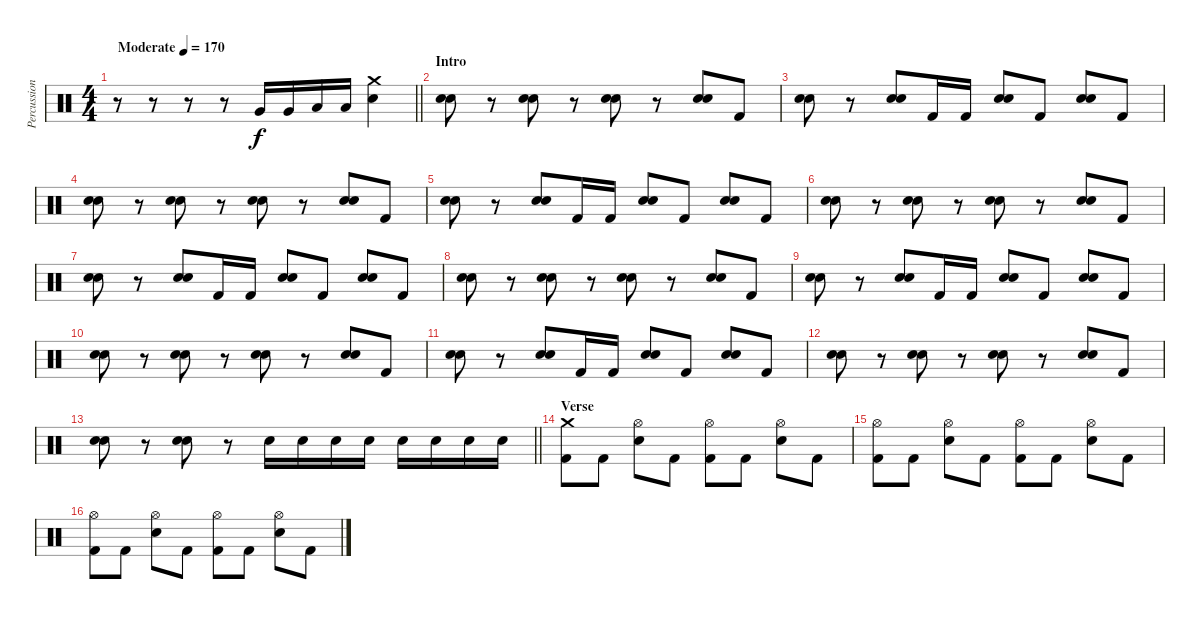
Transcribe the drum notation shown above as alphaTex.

\track ("Percussions" "Percussion") {instrument percussion}
\staff {score}
\articulation defaults
\ts (4 4)
\tempo (170 "Moderate")
\clef neutral
\barLineRight lightlight
\ks c
r.8{dy f} r.8 r.8 r.8 "Very Low Tom (hit)".16 "Very Low Tom (hit)".16 "Low Floor Tom (hit)".16 "Low Floor Tom (hit)".16 ("Crash medium (hit)" "Electric Snare (hit)").4 |
\section ("" "Intro")
("Snare (hit) 2" "Snare (hit) 2").8 r.8 ("Snare (hit) 2" "Snare (hit) 2").8 r.8 ("Snare (hit) 2" "Snare (hit) 2").8 r.8 ("Snare (hit) 2" "Snare (hit) 2").8 "Kick (hit) 2".8 |
("Snare (hit) 2" "Snare (hit) 2").8 r.8 ("Snare (hit) 2" "Snare (hit) 2").8 "Kick (hit) 2".16 "Kick (hit) 2".16 ("Snare (hit) 2" "Snare (hit) 2").8 "Kick (hit) 2".8 ("Snare (hit) 2" "Snare (hit) 2").8 "Kick (hit) 2".8 |
("Snare (hit) 2" "Snare (hit) 2").8 r.8 ("Snare (hit) 2" "Snare (hit) 2").8 r.8 ("Snare (hit) 2" "Snare (hit) 2").8 r.8 ("Snare (hit) 2" "Snare (hit) 2").8 "Kick (hit) 2".8 |
("Snare (hit) 2" "Snare (hit) 2").8 r.8 ("Snare (hit) 2" "Snare (hit) 2").8 "Kick (hit) 2".16 "Kick (hit) 2".16 ("Snare (hit) 2" "Snare (hit) 2").8 "Kick (hit) 2".8 ("Snare (hit) 2" "Snare (hit) 2").8 "Kick (hit) 2".8 |
("Snare (hit) 2" "Snare (hit) 2").8 r.8 ("Snare (hit) 2" "Snare (hit) 2").8 r.8 ("Snare (hit) 2" "Snare (hit) 2").8 r.8 ("Snare (hit) 2" "Snare (hit) 2").8 "Kick (hit) 2".8 |
("Snare (hit) 2" "Snare (hit) 2").8 r.8 ("Snare (hit) 2" "Snare (hit) 2").8 "Kick (hit) 2".16 "Kick (hit) 2".16 ("Snare (hit) 2" "Snare (hit) 2").8 "Kick (hit) 2".8 ("Snare (hit) 2" "Snare (hit) 2").8 "Kick (hit) 2".8 |
("Snare (hit) 2" "Snare (hit) 2").8 r.8 ("Snare (hit) 2" "Snare (hit) 2").8 r.8 ("Snare (hit) 2" "Snare (hit) 2").8 r.8 ("Snare (hit) 2" "Snare (hit) 2").8 "Kick (hit) 2".8 |
("Snare (hit) 2" "Snare (hit) 2").8 r.8 ("Snare (hit) 2" "Snare (hit) 2").8 "Kick (hit) 2".16 "Kick (hit) 2".16 ("Snare (hit) 2" "Snare (hit) 2").8 "Kick (hit) 2".8 ("Snare (hit) 2" "Snare (hit) 2").8 "Kick (hit) 2".8 |
("Snare (hit) 2" "Snare (hit) 2").8 r.8 ("Snare (hit) 2" "Snare (hit) 2").8 r.8 ("Snare (hit) 2" "Snare (hit) 2").8 r.8 ("Snare (hit) 2" "Snare (hit) 2").8 "Kick (hit) 2".8 |
("Snare (hit) 2" "Snare (hit) 2").8 r.8 ("Snare (hit) 2" "Snare (hit) 2").8 "Kick (hit) 2".16 "Kick (hit) 2".16 ("Snare (hit) 2" "Snare (hit) 2").8 "Kick (hit) 2".8 ("Snare (hit) 2" "Snare (hit) 2").8 "Kick (hit) 2".8 |
("Snare (hit) 2" "Snare (hit) 2").8 r.8 ("Snare (hit) 2" "Snare (hit) 2").8 r.8 ("Snare (hit) 2" "Snare (hit) 2").8 r.8 ("Snare (hit) 2" "Snare (hit) 2").8 "Kick (hit) 2".8 |
\barLineRight lightlight
("Snare (hit) 2" "Snare (hit) 2").8 r.8 ("Snare (hit) 2" "Snare (hit) 2").8 r.8 "Electric Snare (hit)".16 "Electric Snare (hit)".16 "Electric Snare (hit)".16 "Electric Snare (hit)".16 "Electric Snare (hit)".16 "Electric Snare (hit)".16 "Electric Snare (hit)".16 "Electric Snare (hit)".16 |
\section ("" "Verse")
("Crash medium (hit)" "Kick (hit) 2").8 "Kick (hit) 2".8 ("Hi-Hat (open)" "Electric Snare (hit)").8 "Kick (hit) 2".8 ("Hi-Hat (open)" "Kick (hit) 2").8 "Kick (hit) 2".8 ("Hi-Hat (open)" "Electric Snare (hit)").8 "Kick (hit) 2".8 |
("Hi-Hat (open)" "Kick (hit) 2").8 "Kick (hit) 2".8 ("Hi-Hat (open)" "Electric Snare (hit)").8 "Kick (hit) 2".8 ("Hi-Hat (open)" "Kick (hit) 2").8 "Kick (hit) 2".8 ("Hi-Hat (open)" "Electric Snare (hit)").8 "Kick (hit) 2".8 |
("Hi-Hat (open)" "Kick (hit) 2").8 "Kick (hit) 2".8 ("Hi-Hat (open)" "Electric Snare (hit)").8 "Kick (hit) 2".8 ("Hi-Hat (open)" "Kick (hit) 2").8 "Kick (hit) 2".8 ("Hi-Hat (open)" "Electric Snare (hit)").8 "Kick (hit) 2".8
